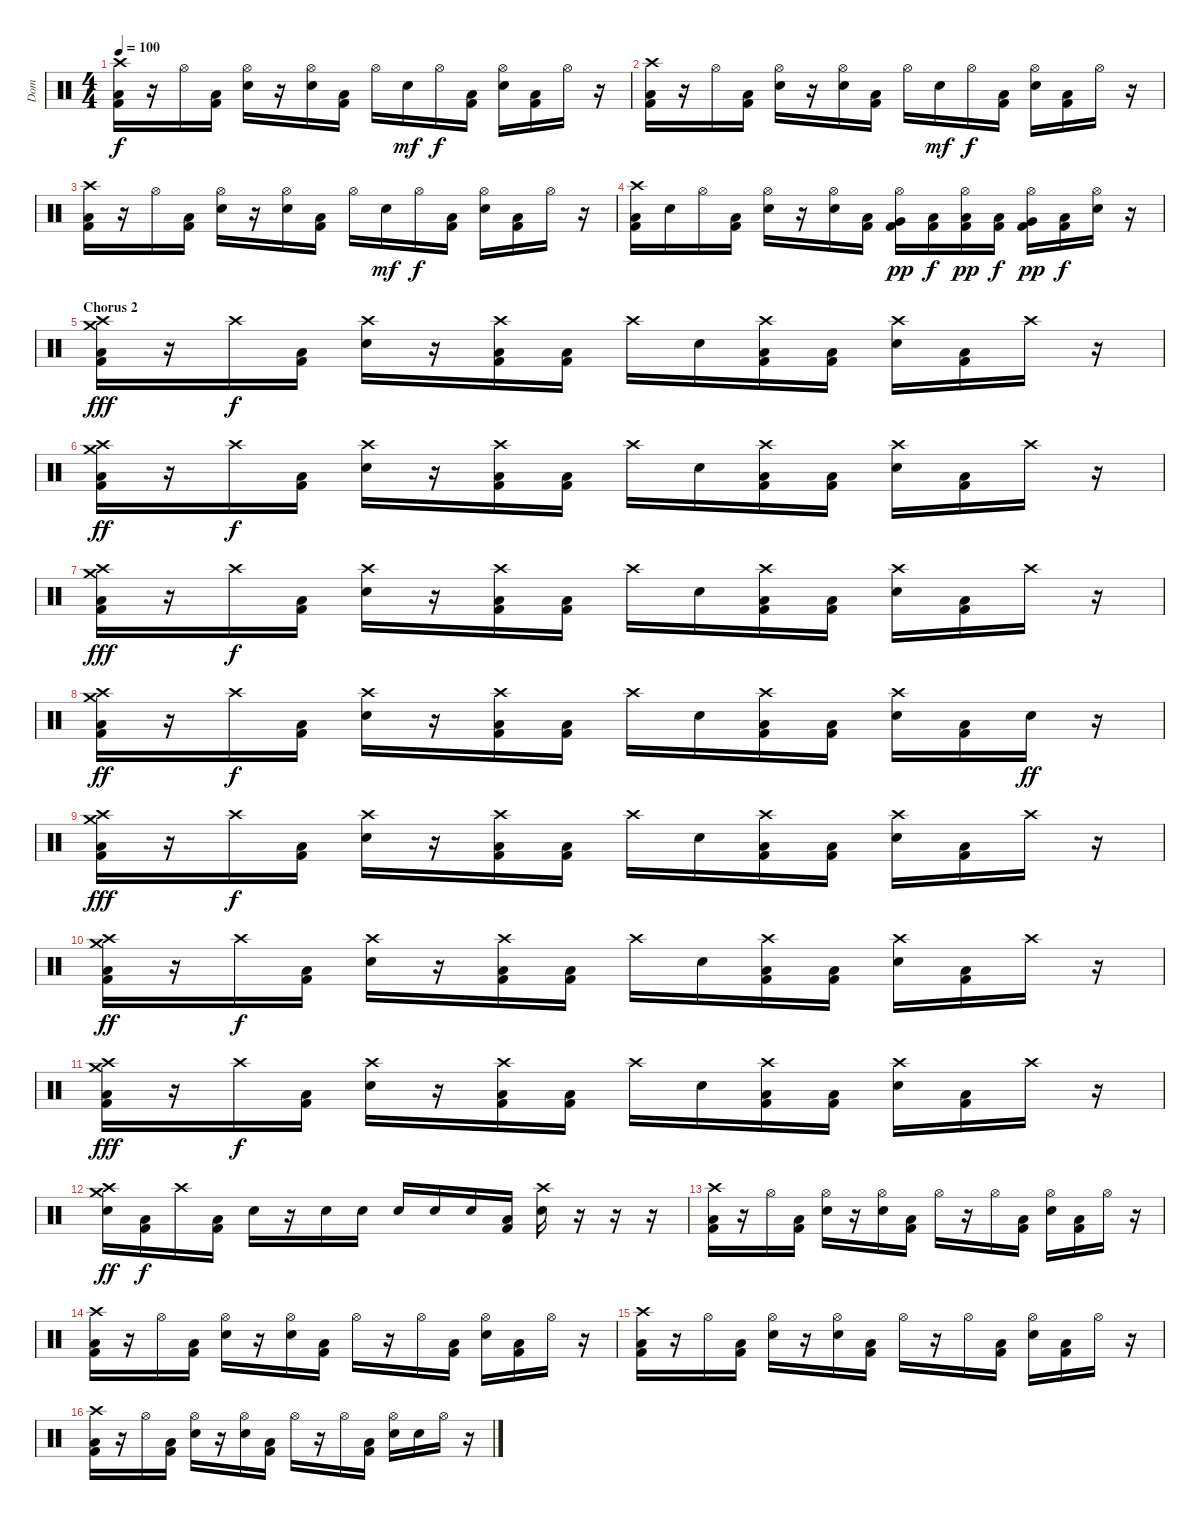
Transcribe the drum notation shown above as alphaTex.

\track ("Dom" "Dom") {instrument percussion}
\staff {score}
\articulation defaults
\ts (4 4)
\tempo 100
\clef neutral
\ks c
("Crash high (hit)" "Low Floor Tom (hit)" "Kick (hit) 2").16{dy f} r.16 "Hi-Hat (open)".16 ("Low Floor Tom (hit)" "Kick (hit) 2").16 ("Hi-Hat (open)" "Electric Snare (hit)").16 r.16 ("Hi-Hat (open)" "Electric Snare (hit)").16 ("Low Floor Tom (hit)" "Kick (hit) 2").16 "Hi-Hat (open)".16 "Electric Snare (hit)".16{dy mf} "Hi-Hat (open)".16{dy f} ("Low Floor Tom (hit)" "Kick (hit) 2").16 ("Hi-Hat (open)" "Electric Snare (hit)").16 ("Low Floor Tom (hit)" "Kick (hit) 2").16 "Hi-Hat (open)".16 r.16 |
("Crash high (hit)" "Low Floor Tom (hit)" "Kick (hit) 2").16 r.16 "Hi-Hat (open)".16 ("Low Floor Tom (hit)" "Kick (hit) 2").16 ("Hi-Hat (open)" "Electric Snare (hit)").16 r.16 ("Hi-Hat (open)" "Electric Snare (hit)").16 ("Low Floor Tom (hit)" "Kick (hit) 2").16 "Hi-Hat (open)".16 "Electric Snare (hit)".16{dy mf} "Hi-Hat (open)".16{dy f} ("Low Floor Tom (hit)" "Kick (hit) 2").16 ("Hi-Hat (open)" "Electric Snare (hit)").16 ("Low Floor Tom (hit)" "Kick (hit) 2").16 "Hi-Hat (open)".16 r.16 |
("Crash high (hit)" "Low Floor Tom (hit)" "Kick (hit) 2").16 r.16 "Hi-Hat (open)".16 ("Low Floor Tom (hit)" "Kick (hit) 2").16 ("Hi-Hat (open)" "Electric Snare (hit)").16 r.16 ("Hi-Hat (open)" "Electric Snare (hit)").16 ("Low Floor Tom (hit)" "Kick (hit) 2").16 "Hi-Hat (open)".16 "Electric Snare (hit)".16{dy mf} "Hi-Hat (open)".16{dy f} ("Low Floor Tom (hit)" "Kick (hit) 2").16 ("Hi-Hat (open)" "Electric Snare (hit)").16 ("Low Floor Tom (hit)" "Kick (hit) 2").16 "Hi-Hat (open)".16 r.16 |
("Crash high (hit)" "Low Floor Tom (hit)" "Kick (hit) 2").16 "Electric Snare (hit)".16 "Hi-Hat (open)".16 ("Low Floor Tom (hit)" "Kick (hit) 2").16 ("Hi-Hat (open)" "Electric Snare (hit)").16 r.16 ("Hi-Hat (open)" "Electric Snare (hit)").16 ("Low Floor Tom (hit)" "Kick (hit) 2").16 ("Hi-Hat (open)" "Very Low Tom (hit)" "Kick (hit) 2").16{dy pp} ("Low Floor Tom (hit)" "Kick (hit) 2").16{dy f} ("Hi-Hat (open)" "Low Floor Tom (hit)" "Kick (hit) 2").16{dy pp} ("Low Floor Tom (hit)" "Kick (hit) 2").16{dy f} ("Hi-Hat (open)" "Very Low Tom (hit)" "Kick (hit) 2").16{dy pp} ("Low Floor Tom (hit)" "Kick (hit) 2").16{dy f} ("Hi-Hat (open)" "Electric Snare (hit)").16 r.16 |
\section ("" "Chorus 2")
("Crash high (hit)" "Crash medium (hit)" "Low Floor Tom (hit)" "Kick (hit) 2").16{dy fff} r.16 "Crash high (hit)".16{dy f} ("Low Floor Tom (hit)" "Kick (hit) 2").16 ("Crash high (hit)" "Electric Snare (hit)").16 r.16 ("Crash high (hit)" "Low Floor Tom (hit)" "Kick (hit) 2").16 ("Low Floor Tom (hit)" "Kick (hit) 2").16 "Crash high (hit)".16 "Electric Snare (hit)".16 ("Crash high (hit)" "Low Floor Tom (hit)" "Kick (hit) 2").16 ("Low Floor Tom (hit)" "Kick (hit) 2").16 ("Crash high (hit)" "Electric Snare (hit)").16 ("Low Floor Tom (hit)" "Kick (hit) 2").16 "Crash high (hit)".16 r.16 |
("Crash high (hit)" "Crash medium (hit)" "Low Floor Tom (hit)" "Kick (hit) 2").16{dy ff} r.16 "Crash high (hit)".16{dy f} ("Low Floor Tom (hit)" "Kick (hit) 2").16 ("Crash high (hit)" "Electric Snare (hit)").16 r.16 ("Crash high (hit)" "Low Floor Tom (hit)" "Kick (hit) 2").16 ("Low Floor Tom (hit)" "Kick (hit) 2").16 "Crash high (hit)".16 "Electric Snare (hit)".16 ("Crash high (hit)" "Low Floor Tom (hit)" "Kick (hit) 2").16 ("Low Floor Tom (hit)" "Kick (hit) 2").16 ("Crash high (hit)" "Electric Snare (hit)").16 ("Low Floor Tom (hit)" "Kick (hit) 2").16 "Crash high (hit)".16 r.16 |
("Crash high (hit)" "Crash medium (hit)" "Low Floor Tom (hit)" "Kick (hit) 2").16{dy fff} r.16 "Crash high (hit)".16{dy f} ("Low Floor Tom (hit)" "Kick (hit) 2").16 ("Crash high (hit)" "Electric Snare (hit)").16 r.16 ("Crash high (hit)" "Low Floor Tom (hit)" "Kick (hit) 2").16 ("Low Floor Tom (hit)" "Kick (hit) 2").16 "Crash high (hit)".16 "Electric Snare (hit)".16 ("Crash high (hit)" "Low Floor Tom (hit)" "Kick (hit) 2").16 ("Low Floor Tom (hit)" "Kick (hit) 2").16 ("Crash high (hit)" "Electric Snare (hit)").16 ("Low Floor Tom (hit)" "Kick (hit) 2").16 "Crash high (hit)".16 r.16 |
("Crash high (hit)" "Crash medium (hit)" "Low Floor Tom (hit)" "Kick (hit) 2").16{dy ff} r.16 "Crash high (hit)".16{dy f} ("Low Floor Tom (hit)" "Kick (hit) 2").16 ("Crash high (hit)" "Electric Snare (hit)").16 r.16 ("Crash high (hit)" "Low Floor Tom (hit)" "Kick (hit) 2").16 ("Low Floor Tom (hit)" "Kick (hit) 2").16 "Crash high (hit)".16 "Electric Snare (hit)".16 ("Crash high (hit)" "Low Floor Tom (hit)" "Kick (hit) 2").16 ("Low Floor Tom (hit)" "Kick (hit) 2").16 ("Crash high (hit)" "Electric Snare (hit)").16 ("Low Floor Tom (hit)" "Kick (hit) 2").16 "Electric Snare (hit)".16{dy ff} r.16 |
("Crash high (hit)" "Crash medium (hit)" "Low Floor Tom (hit)" "Kick (hit) 2").16{dy fff} r.16 "Crash high (hit)".16{dy f} ("Low Floor Tom (hit)" "Kick (hit) 2").16 ("Crash high (hit)" "Electric Snare (hit)").16 r.16 ("Crash high (hit)" "Low Floor Tom (hit)" "Kick (hit) 2").16 ("Low Floor Tom (hit)" "Kick (hit) 2").16 "Crash high (hit)".16 "Electric Snare (hit)".16 ("Crash high (hit)" "Low Floor Tom (hit)" "Kick (hit) 2").16 ("Low Floor Tom (hit)" "Kick (hit) 2").16 ("Crash high (hit)" "Electric Snare (hit)").16 ("Low Floor Tom (hit)" "Kick (hit) 2").16 "Crash high (hit)".16 r.16 |
("Crash high (hit)" "Crash medium (hit)" "Low Floor Tom (hit)" "Kick (hit) 2").16{dy ff} r.16 "Crash high (hit)".16{dy f} ("Low Floor Tom (hit)" "Kick (hit) 2").16 ("Crash high (hit)" "Electric Snare (hit)").16 r.16 ("Crash high (hit)" "Low Floor Tom (hit)" "Kick (hit) 2").16 ("Low Floor Tom (hit)" "Kick (hit) 2").16 "Crash high (hit)".16 "Electric Snare (hit)".16 ("Crash high (hit)" "Low Floor Tom (hit)" "Kick (hit) 2").16 ("Low Floor Tom (hit)" "Kick (hit) 2").16 ("Crash high (hit)" "Electric Snare (hit)").16 ("Low Floor Tom (hit)" "Kick (hit) 2").16 "Crash high (hit)".16 r.16 |
("Crash high (hit)" "Crash medium (hit)" "Low Floor Tom (hit)" "Kick (hit) 2").16{dy fff} r.16 "Crash high (hit)".16{dy f} ("Low Floor Tom (hit)" "Kick (hit) 2").16 ("Crash high (hit)" "Electric Snare (hit)").16 r.16 ("Crash high (hit)" "Low Floor Tom (hit)" "Kick (hit) 2").16 ("Low Floor Tom (hit)" "Kick (hit) 2").16 "Crash high (hit)".16 "Electric Snare (hit)".16 ("Crash high (hit)" "Low Floor Tom (hit)" "Kick (hit) 2").16 ("Low Floor Tom (hit)" "Kick (hit) 2").16 ("Crash high (hit)" "Electric Snare (hit)").16 ("Low Floor Tom (hit)" "Kick (hit) 2").16 "Crash high (hit)".16 r.16 |
("Crash high (hit)" "Crash medium (hit)" "Electric Snare (hit)").16{dy ff} ("Low Floor Tom (hit)" "Kick (hit) 2").16{dy f} "Crash high (hit)".16 ("Low Floor Tom (hit)" "Kick (hit) 2").16 "Electric Snare (hit)".16 r.16 "Electric Snare (hit)".16 "Electric Snare (hit)".16 "Electric Snare (hit)".16 "Electric Snare (hit)".16 "Electric Snare (hit)".16 ("Low Floor Tom (hit)" "Kick (hit) 2").16 ("Crash high (hit)" "Electric Snare (hit)").16 r.16 r.16 r.16 |
("Crash high (hit)" "Low Floor Tom (hit)" "Kick (hit) 2").16 r.16 "Hi-Hat (open)".16 ("Low Floor Tom (hit)" "Kick (hit) 2").16 ("Hi-Hat (open)" "Electric Snare (hit)").16 r.16 ("Hi-Hat (open)" "Electric Snare (hit)").16 ("Low Floor Tom (hit)" "Kick (hit) 2").16 "Hi-Hat (open)".16 r.16 "Hi-Hat (open)".16 ("Low Floor Tom (hit)" "Kick (hit) 2").16 ("Hi-Hat (open)" "Electric Snare (hit)").16 ("Low Floor Tom (hit)" "Kick (hit) 2").16 "Hi-Hat (open)".16 r.16 |
("Crash high (hit)" "Low Floor Tom (hit)" "Kick (hit) 2").16 r.16 "Hi-Hat (open)".16 ("Low Floor Tom (hit)" "Kick (hit) 2").16 ("Hi-Hat (open)" "Electric Snare (hit)").16 r.16 ("Hi-Hat (open)" "Electric Snare (hit)").16 ("Low Floor Tom (hit)" "Kick (hit) 2").16 "Hi-Hat (open)".16 r.16 "Hi-Hat (open)".16 ("Low Floor Tom (hit)" "Kick (hit) 2").16 ("Hi-Hat (open)" "Electric Snare (hit)").16 ("Low Floor Tom (hit)" "Kick (hit) 2").16 "Hi-Hat (open)".16 r.16 |
("Crash high (hit)" "Low Floor Tom (hit)" "Kick (hit) 2").16 r.16 "Hi-Hat (open)".16 ("Low Floor Tom (hit)" "Kick (hit) 2").16 ("Hi-Hat (open)" "Electric Snare (hit)").16 r.16 ("Hi-Hat (open)" "Electric Snare (hit)").16 ("Low Floor Tom (hit)" "Kick (hit) 2").16 "Hi-Hat (open)".16 r.16 "Hi-Hat (open)".16 ("Low Floor Tom (hit)" "Kick (hit) 2").16 ("Hi-Hat (open)" "Electric Snare (hit)").16 ("Low Floor Tom (hit)" "Kick (hit) 2").16 "Hi-Hat (open)".16 r.16 |
("Crash high (hit)" "Low Floor Tom (hit)" "Kick (hit) 2").16 r.16 "Hi-Hat (open)".16 ("Low Floor Tom (hit)" "Kick (hit) 2").16 ("Hi-Hat (open)" "Electric Snare (hit)").16 r.16 ("Hi-Hat (open)" "Electric Snare (hit)").16 ("Low Floor Tom (hit)" "Kick (hit) 2").16 "Hi-Hat (open)".16 r.16 "Hi-Hat (open)".16 ("Low Floor Tom (hit)" "Kick (hit) 2").16 ("Hi-Hat (open)" "Electric Snare (hit)").16 "Electric Snare (hit)".16 "Hi-Hat (open)".16 r.16
